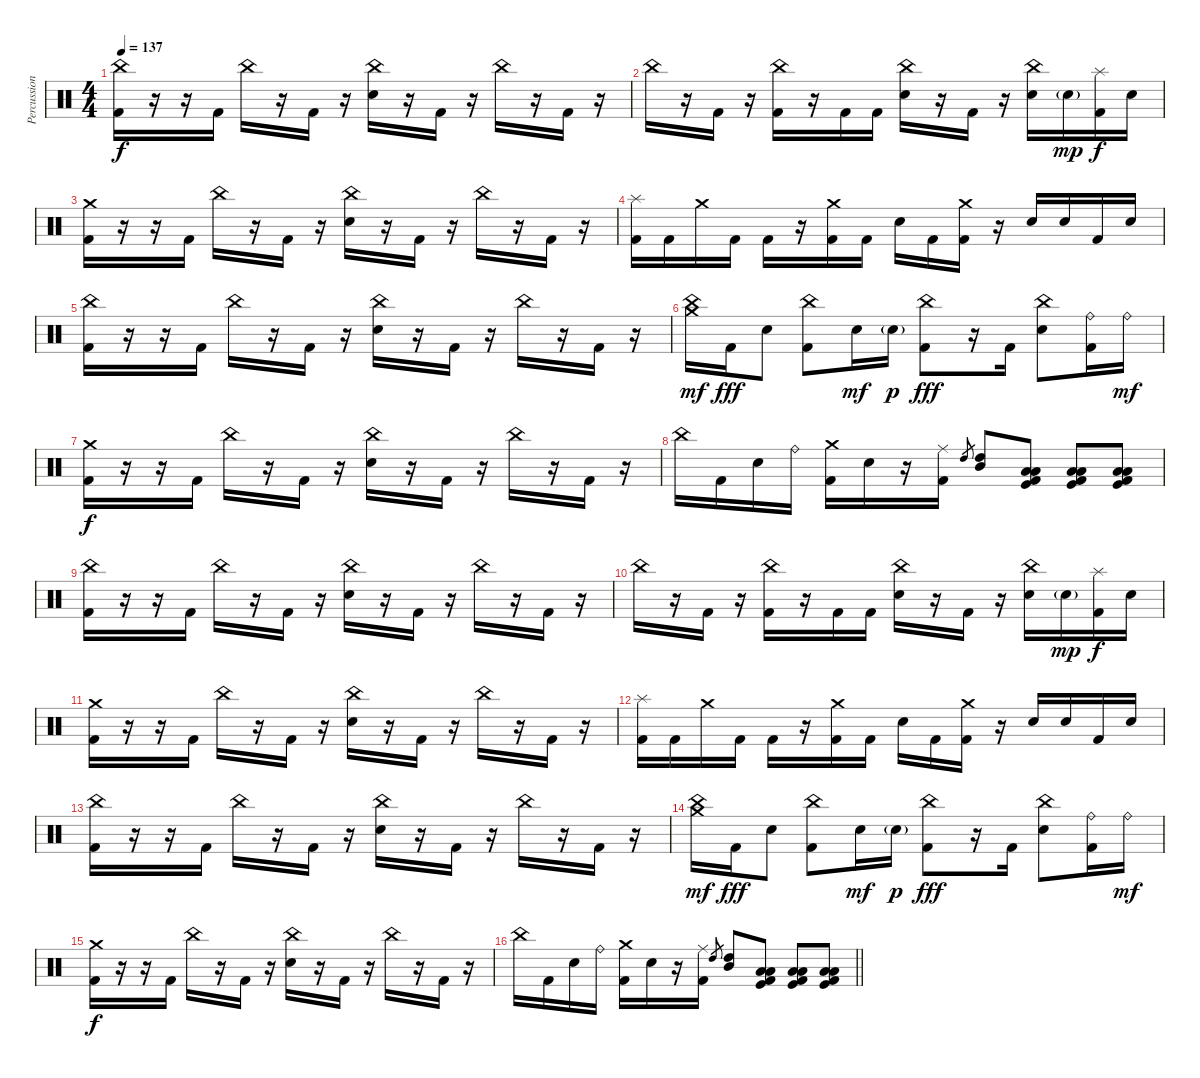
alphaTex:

\track ("Percussion" "Percussion") {instrument percussion}
\staff {score}
\articulation defaults
\ts (4 4)
\tempo 137
\clef neutral
\ks c
("China (hit)" "Kick (hit) 2").16{dy f} r.16 r.16 "Kick (hit) 2".16 "China (hit)".16 r.16 "Kick (hit) 2".16 r.16 ("China (hit)" "Electric Snare (hit)").16 r.16 "Kick (hit) 2".16 r.16 "China (hit)".16 r.16 "Kick (hit) 2".16 r.16 |
"China (hit)".16 r.16 "Kick (hit) 2".16 r.16 ("China (hit)" "Kick (hit) 2").16 r.16 "Kick (hit) 2".16 "Kick (hit) 2".16 ("China (hit)" "Electric Snare (hit)").16 r.16 "Kick (hit) 2".16 r.16 ("China (hit)" "Electric Snare (hit)").16 "Electric Snare (hit)"{g}.16{dy mp} ("Splash (hit)" "Kick (hit) 2").16{dy f} "Electric Snare (hit)".16 |
("Crash medium (hit)" "Kick (hit) 2").16 r.16 r.16 "Kick (hit) 2".16 "China (hit)".16 r.16 "Kick (hit) 2".16 r.16 ("China (hit)" "Electric Snare (hit)").16 r.16 "Kick (hit) 2".16 r.16 "China (hit)".16 r.16 "Kick (hit) 2".16 r.16 |
("Splash (hit)" "Kick (hit) 2").16 "Kick (hit) 2".16 "Crash medium (hit)".16 "Kick (hit) 2".16 "Kick (hit) 2".16 r.16 ("Crash medium (hit)" "Kick (hit) 2").16 "Kick (hit) 2".16 "Electric Snare (hit)".16 "Kick (hit) 2".16 ("Crash medium (hit)" "Kick (hit) 2").16 r.16 "Electric Snare (hit)".16 "Electric Snare (hit)".16 "Kick (hit) 2".16 "Electric Snare (hit)".16 |
("China (hit)" "Kick (hit) 2").16 r.16 r.16 "Kick (hit) 2".16 "China (hit)".16 r.16 "Kick (hit) 2".16 r.16 ("China (hit)" "Electric Snare (hit)").16 r.16 "Kick (hit) 2".16 r.16 "China (hit)".16 r.16 "Kick (hit) 2".16 r.16 |
("Crash medium (hit)" "China (hit)").16{dy mf} "Kick (hit) 2".16{dy fff} "Electric Snare (hit)".8 ("China (hit)" "Kick (hit) 2").8 "Electric Snare (hit)".16{dy mf} "Electric Snare (hit)"{g}.16{dy p} ("China (hit)" "Kick (hit) 2").8{dy fff} r.16 "Kick (hit) 2".16 ("China (hit)" "Electric Snare (hit)").8 ("Ride (bell)" "Kick (hit) 2").16 "Ride (bell)".16{dy mf} |
("Crash medium (hit)" "Kick (hit) 2").16{dy f} r.16 r.16 "Kick (hit) 2".16 "China (hit)".16 r.16 "Kick (hit) 2".16 r.16 ("China (hit)" "Electric Snare (hit)").16 r.16 "Kick (hit) 2".16 r.16 "China (hit)".16 r.16 "Kick (hit) 2".16 r.16 |
"China (hit)".16 "Kick (hit) 2".16 "Electric Snare (hit)".16 "Ride (bell)".16 ("Crash medium (hit)" "Kick (hit) 2").16 "Electric Snare (hit)".16 r.16 ("Ride (middle)" "Kick (hit) 2").16 "High Tom (hit)".8{gr} ("High Tom (hit)" "Mid Tom (hit)").8 ("Kick (hit)" "Low Tom (hit)" "Low Floor Tom (hit)" "Kick (hit) 2").8 ("Kick (hit)" "Low Tom (hit)" "Low Floor Tom (hit)" "Kick (hit) 2").8 ("Kick (hit)" "Low Tom (hit)" "Low Floor Tom (hit)" "Kick (hit) 2").8 |
("China (hit)" "Kick (hit) 2").16 r.16 r.16 "Kick (hit) 2".16 "China (hit)".16 r.16 "Kick (hit) 2".16 r.16 ("China (hit)" "Electric Snare (hit)").16 r.16 "Kick (hit) 2".16 r.16 "China (hit)".16 r.16 "Kick (hit) 2".16 r.16 |
"China (hit)".16 r.16 "Kick (hit) 2".16 r.16 ("China (hit)" "Kick (hit) 2").16 r.16 "Kick (hit) 2".16 "Kick (hit) 2".16 ("China (hit)" "Electric Snare (hit)").16 r.16 "Kick (hit) 2".16 r.16 ("China (hit)" "Electric Snare (hit)").16 "Electric Snare (hit)"{g}.16{dy mp} ("Splash (hit)" "Kick (hit) 2").16{dy f} "Electric Snare (hit)".16 |
("Crash medium (hit)" "Kick (hit) 2").16 r.16 r.16 "Kick (hit) 2".16 "China (hit)".16 r.16 "Kick (hit) 2".16 r.16 ("China (hit)" "Electric Snare (hit)").16 r.16 "Kick (hit) 2".16 r.16 "China (hit)".16 r.16 "Kick (hit) 2".16 r.16 |
("Splash (hit)" "Kick (hit) 2").16 "Kick (hit) 2".16 "Crash medium (hit)".16 "Kick (hit) 2".16 "Kick (hit) 2".16 r.16 ("Crash medium (hit)" "Kick (hit) 2").16 "Kick (hit) 2".16 "Electric Snare (hit)".16 "Kick (hit) 2".16 ("Crash medium (hit)" "Kick (hit) 2").16 r.16 "Electric Snare (hit)".16 "Electric Snare (hit)".16 "Kick (hit) 2".16 "Electric Snare (hit)".16 |
("China (hit)" "Kick (hit) 2").16 r.16 r.16 "Kick (hit) 2".16 "China (hit)".16 r.16 "Kick (hit) 2".16 r.16 ("China (hit)" "Electric Snare (hit)").16 r.16 "Kick (hit) 2".16 r.16 "China (hit)".16 r.16 "Kick (hit) 2".16 r.16 |
("Crash medium (hit)" "China (hit)").16{dy mf} "Kick (hit) 2".16{dy fff} "Electric Snare (hit)".8 ("China (hit)" "Kick (hit) 2").8 "Electric Snare (hit)".16{dy mf} "Electric Snare (hit)"{g}.16{dy p} ("China (hit)" "Kick (hit) 2").8{dy fff} r.16 "Kick (hit) 2".16 ("China (hit)" "Electric Snare (hit)").8 ("Ride (bell)" "Kick (hit) 2").16 "Ride (bell)".16{dy mf} |
("Crash medium (hit)" "Kick (hit) 2").16{dy f} r.16 r.16 "Kick (hit) 2".16 "China (hit)".16 r.16 "Kick (hit) 2".16 r.16 ("China (hit)" "Electric Snare (hit)").16 r.16 "Kick (hit) 2".16 r.16 "China (hit)".16 r.16 "Kick (hit) 2".16 r.16 |
\barLineRight lightlight "China (hit)".16 "Kick (hit) 2".16 "Electric Snare (hit)".16 "Ride (bell)".16
("Crash medium (hit)" "Kick (hit) 2").16 "Electric Snare (hit)".16 r.16 ("Ride (middle)" "Kick (hit) 2").16 "High Tom (hit)".8{gr} ("High Tom (hit)" "Mid Tom (hit)").8 ("Kick (hit)" "Low Tom (hit)" "Low Floor Tom (hit)" "Kick (hit) 2").8 ("Kick (hit)" "Low Tom (hit)" "Low Floor Tom (hit)" "Kick (hit) 2").8 ("Kick (hit)" "Low Tom (hit)" "Low Floor Tom (hit)" "Kick (hit) 2").8
